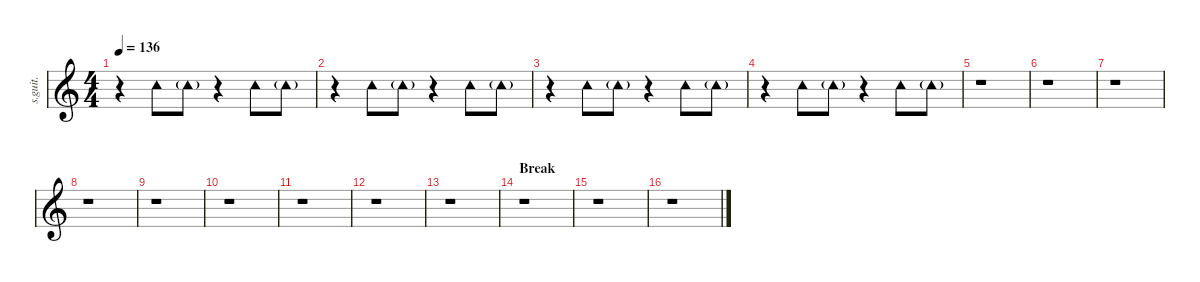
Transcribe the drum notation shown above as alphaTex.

\defaultSystemsLayout 4
\hideDynamics
\bracketExtendMode nobrackets
\track ("Tambourine" "s.guit.") {instrument percussion}
\staff {score}
\articulation defaults
\ts (4 4)
\tempo 136
\clef g2
\ks c
r.4{dy mf} "Tambourine (hit)".8{lyrics (0 "") lyrics (1 "") lyrics (2 "") lyrics (3 "") lyrics (4 "")} "Tambourine (hit)"{g}.8{lyrics (0 "") lyrics (1 "") lyrics (2 "") lyrics (3 "") lyrics (4 "")} r.4 "Tambourine (hit)".8{lyrics (0 "") lyrics (1 "") lyrics (2 "") lyrics (3 "") lyrics (4 "")} "Tambourine (hit)"{g}.8{lyrics (0 "") lyrics (1 "") lyrics (2 "") lyrics (3 "") lyrics (4 "")} |
r.4 "Tambourine (hit)".8{lyrics (0 "") lyrics (1 "") lyrics (2 "") lyrics (3 "") lyrics (4 "")} "Tambourine (hit)"{g}.8{lyrics (0 "") lyrics (1 "") lyrics (2 "") lyrics (3 "") lyrics (4 "")} r.4 "Tambourine (hit)".8{lyrics (0 "") lyrics (1 "") lyrics (2 "") lyrics (3 "") lyrics (4 "")} "Tambourine (hit)"{g}.8{lyrics (0 "") lyrics (1 "") lyrics (2 "") lyrics (3 "") lyrics (4 "")} |
r.4 "Tambourine (hit)".8{lyrics (0 "") lyrics (1 "") lyrics (2 "") lyrics (3 "") lyrics (4 "")} "Tambourine (hit)"{g}.8{lyrics (0 "") lyrics (1 "") lyrics (2 "") lyrics (3 "") lyrics (4 "")} r.4 "Tambourine (hit)".8{lyrics (0 "") lyrics (1 "") lyrics (2 "") lyrics (3 "") lyrics (4 "")} "Tambourine (hit)"{g}.8{lyrics (0 "") lyrics (1 "") lyrics (2 "") lyrics (3 "") lyrics (4 "")} |
r.4 "Tambourine (hit)".8{lyrics (0 "") lyrics (1 "") lyrics (2 "") lyrics (3 "") lyrics (4 "")} "Tambourine (hit)"{g}.8{lyrics (0 "") lyrics (1 "") lyrics (2 "") lyrics (3 "") lyrics (4 "")} r.4 "Tambourine (hit)".8{lyrics (0 "") lyrics (1 "") lyrics (2 "") lyrics (3 "") lyrics (4 "")} "Tambourine (hit)"{g}.8{lyrics (0 "") lyrics (1 "") lyrics (2 "") lyrics (3 "") lyrics (4 "")} |
r.1 |
r.1 |
r.1 |
r.1 |
r.1 |
r.1 |
r.1 |
r.1 |
r.1 |
\section ("" "Break")
r.1 |
r.1 |
r.1
